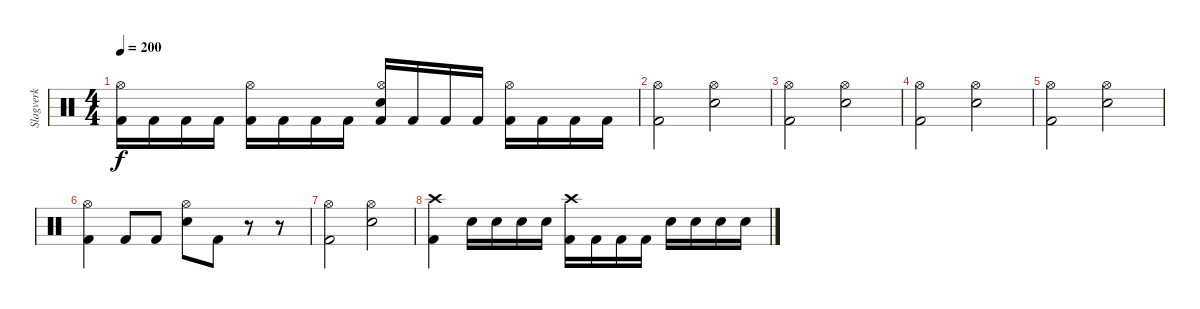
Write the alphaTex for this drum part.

\track ("Slagverk" "Slagverk") {instrument percussion}
\staff {score}
\articulation defaults
\ts (4 4)
\tempo 200
\clef neutral
\ks c
("Kick (hit) 2" "Hi-Hat (open)").16{dy f} "Kick (hit) 2".16 "Kick (hit) 2".16 "Kick (hit) 2".16 ("Kick (hit) 2" "Hi-Hat (open)").16 "Kick (hit) 2".16 "Kick (hit) 2".16 "Kick (hit) 2".16 ("Kick (hit) 2" "Hi-Hat (open)" "Snare (hit) 2").16 "Kick (hit) 2".16 "Kick (hit) 2".16 "Kick (hit) 2".16 ("Kick (hit) 2" "Hi-Hat (open)").16 "Kick (hit) 2".16 "Kick (hit) 2".16 "Kick (hit) 2".16 |
("Hi-Hat (open)" "Kick (hit) 2").2 ("Snare (hit) 2" "Hi-Hat (open)").2 |
("Hi-Hat (open)" "Kick (hit) 2").2 ("Snare (hit) 2" "Hi-Hat (open)").2 |
("Hi-Hat (open)" "Kick (hit) 2").2 ("Snare (hit) 2" "Hi-Hat (open)").2 |
("Hi-Hat (open)" "Kick (hit) 2").2 ("Snare (hit) 2" "Hi-Hat (open)").2 |
("Kick (hit) 2" "Hi-Hat (open)").4 "Kick (hit) 2".8 "Kick (hit) 2".8 ("Snare (hit) 2" "Hi-Hat (open)").8 "Kick (hit) 2".8 r.8 r.8 |
("Hi-Hat (open)" "Kick (hit) 2").2 ("Snare (hit) 2" "Hi-Hat (open)").2 |
("Kick (hit) 2" "Crash high (hit)").4 "Snare (hit) 2".16 "Snare (hit) 2".16 "Snare (hit) 2".16 "Snare (hit) 2".16 ("Kick (hit) 2" "Crash high (hit)").16 "Kick (hit) 2".16 "Kick (hit) 2".16 "Kick (hit) 2".16 "Snare (hit) 2".16 "Snare (hit) 2".16 "Snare (hit) 2".16 "Snare (hit) 2".16
